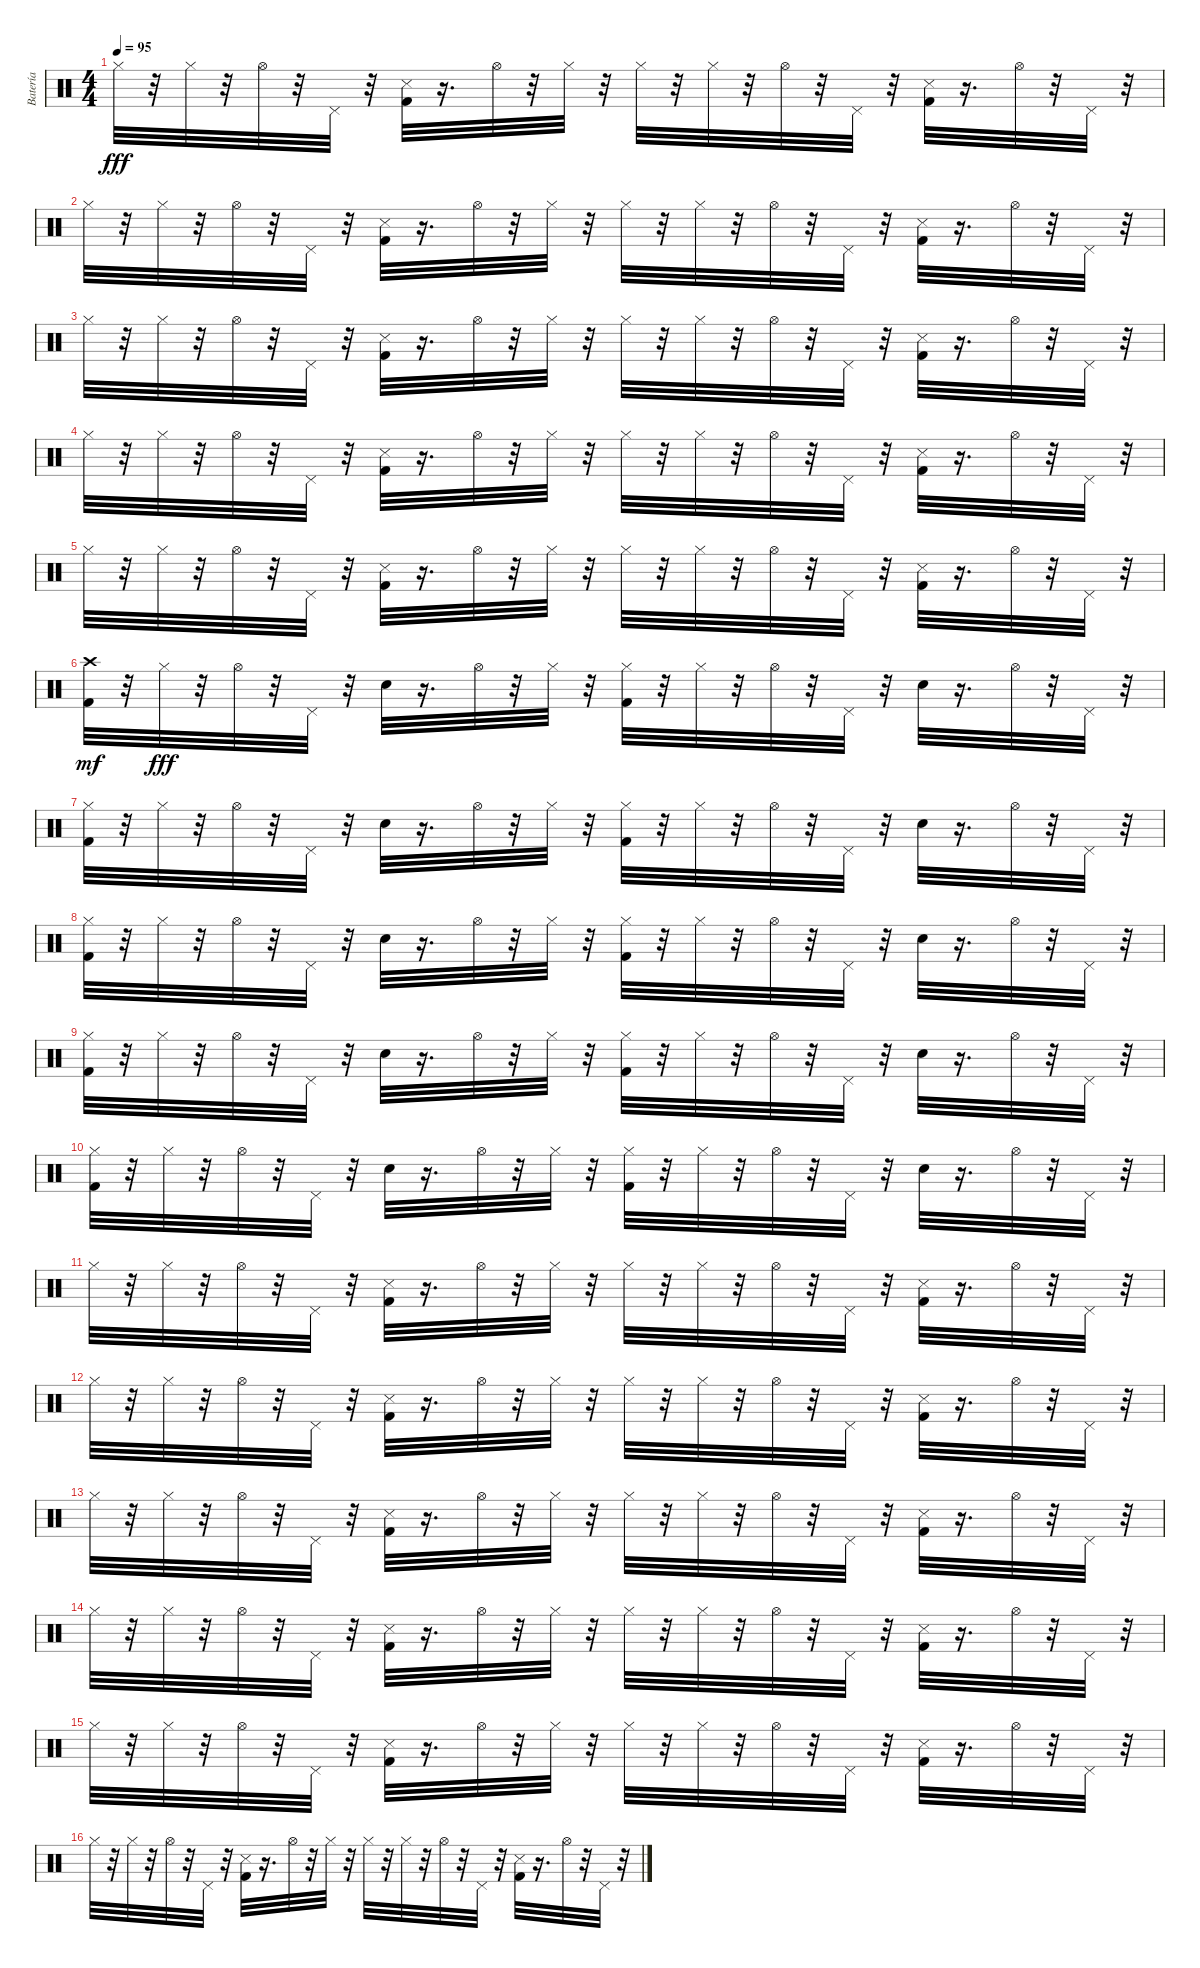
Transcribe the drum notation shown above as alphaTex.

\track ("Batería" "Batería") {instrument percussion}
\staff {score}
\articulation defaults
\ts (4 4)
\tempo 95
\clef neutral
\ks c "Hi-Hat (closed)".32{dy fff}
r.32 "Hi-Hat (closed)".32 r.32 "Hi-Hat (open)".32 r.32 "Pedal Hi-Hat (hit)".32 r.32 ("Kick (hit) 2" "Snare (side stick) 3").32 r.16{d} "Hi-Hat (open)".32 r.32 "Hi-Hat (closed)".32 r.32 "Hi-Hat (closed)".32 r.32 "Hi-Hat (closed)".32 r.32 "Hi-Hat (open)".32 r.32 "Pedal Hi-Hat (hit)".32 r.32 ("Kick (hit) 2" "Snare (side stick) 3").32 r.16{d} "Hi-Hat (open)".32 r.32 "Pedal Hi-Hat (hit)".32 r.32 |
"Hi-Hat (closed)".32 r.32 "Hi-Hat (closed)".32 r.32 "Hi-Hat (open)".32 r.32 "Pedal Hi-Hat (hit)".32 r.32 ("Kick (hit) 2" "Snare (side stick) 3").32 r.16{d} "Hi-Hat (open)".32 r.32 "Hi-Hat (closed)".32 r.32 "Hi-Hat (closed)".32 r.32 "Hi-Hat (closed)".32 r.32 "Hi-Hat (open)".32 r.32 "Pedal Hi-Hat (hit)".32 r.32 ("Kick (hit) 2" "Snare (side stick) 3").32 r.16{d} "Hi-Hat (open)".32 r.32 "Pedal Hi-Hat (hit)".32 r.32 |
"Hi-Hat (closed)".32 r.32 "Hi-Hat (closed)".32 r.32 "Hi-Hat (open)".32 r.32 "Pedal Hi-Hat (hit)".32 r.32 ("Kick (hit) 2" "Snare (side stick) 3").32 r.16{d} "Hi-Hat (open)".32 r.32 "Hi-Hat (closed)".32 r.32 "Hi-Hat (closed)".32 r.32 "Hi-Hat (closed)".32 r.32 "Hi-Hat (open)".32 r.32 "Pedal Hi-Hat (hit)".32 r.32 ("Kick (hit) 2" "Snare (side stick) 3").32 r.16{d} "Hi-Hat (open)".32 r.32 "Pedal Hi-Hat (hit)".32 r.32 |
"Hi-Hat (closed)".32 r.32 "Hi-Hat (closed)".32 r.32 "Hi-Hat (open)".32 r.32 "Pedal Hi-Hat (hit)".32 r.32 ("Kick (hit) 2" "Snare (side stick) 3").32 r.16{d} "Hi-Hat (open)".32 r.32 "Hi-Hat (closed)".32 r.32 "Hi-Hat (closed)".32 r.32 "Hi-Hat (closed)".32 r.32 "Hi-Hat (open)".32 r.32 "Pedal Hi-Hat (hit)".32 r.32 ("Kick (hit) 2" "Snare (side stick) 3").32 r.16{d} "Hi-Hat (open)".32 r.32 "Pedal Hi-Hat (hit)".32 r.32 |
"Hi-Hat (closed)".32 r.32 "Hi-Hat (closed)".32 r.32 "Hi-Hat (open)".32 r.32 "Pedal Hi-Hat (hit)".32 r.32 ("Kick (hit) 2" "Snare (side stick) 3").32 r.16{d} "Hi-Hat (open)".32 r.32 "Hi-Hat (closed)".32 r.32 "Hi-Hat (closed)".32 r.32 "Hi-Hat (closed)".32 r.32 "Hi-Hat (open)".32 r.32 "Pedal Hi-Hat (hit)".32 r.32 ("Kick (hit) 2" "Snare (side stick) 3").32 r.16{d} "Hi-Hat (open)".32 r.32 "Pedal Hi-Hat (hit)".32 r.32 |
("Crash high (hit)" "Kick (hit) 2").32{dy mf} r.32 "Hi-Hat (closed)".32{dy fff} r.32 "Hi-Hat (open)".32 r.32 "Pedal Hi-Hat (hit)".32 r.32 "Electric Snare (hit)".32 r.16{d} "Hi-Hat (open)".32 r.32 "Hi-Hat (closed)".32 r.32 ("Kick (hit) 2" "Hi-Hat (closed)").32 r.32 "Hi-Hat (closed)".32 r.32 "Hi-Hat (open)".32 r.32 "Pedal Hi-Hat (hit)".32 r.32 "Electric Snare (hit)".32 r.16{d} "Hi-Hat (open)".32 r.32 "Pedal Hi-Hat (hit)".32 r.32 |
("Kick (hit) 2" "Hi-Hat (closed)").32 r.32 "Hi-Hat (closed)".32 r.32 "Hi-Hat (open)".32 r.32 "Pedal Hi-Hat (hit)".32 r.32 "Electric Snare (hit)".32 r.16{d} "Hi-Hat (open)".32 r.32 "Hi-Hat (closed)".32 r.32 ("Kick (hit) 2" "Hi-Hat (closed)").32 r.32 "Hi-Hat (closed)".32 r.32 "Hi-Hat (open)".32 r.32 "Pedal Hi-Hat (hit)".32 r.32 "Electric Snare (hit)".32 r.16{d} "Hi-Hat (open)".32 r.32 "Pedal Hi-Hat (hit)".32 r.32 |
("Kick (hit) 2" "Hi-Hat (closed)").32 r.32 "Hi-Hat (closed)".32 r.32 "Hi-Hat (open)".32 r.32 "Pedal Hi-Hat (hit)".32 r.32 "Electric Snare (hit)".32 r.16{d} "Hi-Hat (open)".32 r.32 "Hi-Hat (closed)".32 r.32 ("Kick (hit) 2" "Hi-Hat (closed)").32 r.32 "Hi-Hat (closed)".32 r.32 "Hi-Hat (open)".32 r.32 "Pedal Hi-Hat (hit)".32 r.32 "Electric Snare (hit)".32 r.16{d} "Hi-Hat (open)".32 r.32 "Pedal Hi-Hat (hit)".32 r.32 |
("Kick (hit) 2" "Hi-Hat (closed)").32 r.32 "Hi-Hat (closed)".32 r.32 "Hi-Hat (open)".32 r.32 "Pedal Hi-Hat (hit)".32 r.32 "Electric Snare (hit)".32 r.16{d} "Hi-Hat (open)".32 r.32 "Hi-Hat (closed)".32 r.32 ("Kick (hit) 2" "Hi-Hat (closed)").32 r.32 "Hi-Hat (closed)".32 r.32 "Hi-Hat (open)".32 r.32 "Pedal Hi-Hat (hit)".32 r.32 "Electric Snare (hit)".32 r.16{d} "Hi-Hat (open)".32 r.32 "Pedal Hi-Hat (hit)".32 r.32 |
("Kick (hit) 2" "Hi-Hat (closed)").32 r.32 "Hi-Hat (closed)".32 r.32 "Hi-Hat (open)".32 r.32 "Pedal Hi-Hat (hit)".32 r.32 "Electric Snare (hit)".32 r.16{d} "Hi-Hat (open)".32 r.32 "Hi-Hat (closed)".32 r.32 ("Kick (hit) 2" "Hi-Hat (closed)").32 r.32 "Hi-Hat (closed)".32 r.32 "Hi-Hat (open)".32 r.32 "Pedal Hi-Hat (hit)".32 r.32 "Electric Snare (hit)".32 r.16{d} "Hi-Hat (open)".32 r.32 "Pedal Hi-Hat (hit)".32 r.32 |
"Hi-Hat (closed)".32 r.32 "Hi-Hat (closed)".32 r.32 "Hi-Hat (open)".32 r.32 "Pedal Hi-Hat (hit)".32 r.32 ("Kick (hit) 2" "Snare (side stick) 3").32 r.16{d} "Hi-Hat (open)".32 r.32 "Hi-Hat (closed)".32 r.32 "Hi-Hat (closed)".32 r.32 "Hi-Hat (closed)".32 r.32 "Hi-Hat (open)".32 r.32 "Pedal Hi-Hat (hit)".32 r.32 ("Kick (hit) 2" "Snare (side stick) 3").32 r.16{d} "Hi-Hat (open)".32 r.32 "Pedal Hi-Hat (hit)".32 r.32 |
"Hi-Hat (closed)".32 r.32 "Hi-Hat (closed)".32 r.32 "Hi-Hat (open)".32 r.32 "Pedal Hi-Hat (hit)".32 r.32 ("Kick (hit) 2" "Snare (side stick) 3").32 r.16{d} "Hi-Hat (open)".32 r.32 "Hi-Hat (closed)".32 r.32 "Hi-Hat (closed)".32 r.32 "Hi-Hat (closed)".32 r.32 "Hi-Hat (open)".32 r.32 "Pedal Hi-Hat (hit)".32 r.32 ("Kick (hit) 2" "Snare (side stick) 3").32 r.16{d} "Hi-Hat (open)".32 r.32 "Pedal Hi-Hat (hit)".32 r.32 |
"Hi-Hat (closed)".32 r.32 "Hi-Hat (closed)".32 r.32 "Hi-Hat (open)".32 r.32 "Pedal Hi-Hat (hit)".32 r.32 ("Kick (hit) 2" "Snare (side stick) 3").32 r.16{d} "Hi-Hat (open)".32 r.32 "Hi-Hat (closed)".32 r.32 "Hi-Hat (closed)".32 r.32 "Hi-Hat (closed)".32 r.32 "Hi-Hat (open)".32 r.32 "Pedal Hi-Hat (hit)".32 r.32 ("Kick (hit) 2" "Snare (side stick) 3").32 r.16{d} "Hi-Hat (open)".32 r.32 "Pedal Hi-Hat (hit)".32 r.32 |
"Hi-Hat (closed)".32 r.32 "Hi-Hat (closed)".32 r.32 "Hi-Hat (open)".32 r.32 "Pedal Hi-Hat (hit)".32 r.32 ("Kick (hit) 2" "Snare (side stick) 3").32 r.16{d} "Hi-Hat (open)".32 r.32 "Hi-Hat (closed)".32 r.32 "Hi-Hat (closed)".32 r.32 "Hi-Hat (closed)".32 r.32 "Hi-Hat (open)".32 r.32 "Pedal Hi-Hat (hit)".32 r.32 ("Kick (hit) 2" "Snare (side stick) 3").32 r.16{d} "Hi-Hat (open)".32 r.32 "Pedal Hi-Hat (hit)".32 r.32 |
"Hi-Hat (closed)".32 r.32 "Hi-Hat (closed)".32 r.32 "Hi-Hat (open)".32 r.32 "Pedal Hi-Hat (hit)".32 r.32 ("Kick (hit) 2" "Snare (side stick) 3").32 r.16{d} "Hi-Hat (open)".32 r.32 "Hi-Hat (closed)".32 r.32 "Hi-Hat (closed)".32 r.32 "Hi-Hat (closed)".32 r.32 "Hi-Hat (open)".32 r.32 "Pedal Hi-Hat (hit)".32 r.32 ("Kick (hit) 2" "Snare (side stick) 3").32 r.16{d} "Hi-Hat (open)".32 r.32 "Pedal Hi-Hat (hit)".32 r.32 |
"Hi-Hat (closed)".32 r.32 "Hi-Hat (closed)".32 r.32 "Hi-Hat (open)".32 r.32 "Pedal Hi-Hat (hit)".32 r.32 ("Kick (hit) 2" "Snare (side stick) 3").32 r.16{d} "Hi-Hat (open)".32 r.32 "Hi-Hat (closed)".32 r.32 "Hi-Hat (closed)".32 r.32 "Hi-Hat (closed)".32 r.32 "Hi-Hat (open)".32 r.32 "Pedal Hi-Hat (hit)".32 r.32 ("Kick (hit) 2" "Snare (side stick) 3").32 r.16{d} "Hi-Hat (open)".32 r.32 "Pedal Hi-Hat (hit)".32 r.32
